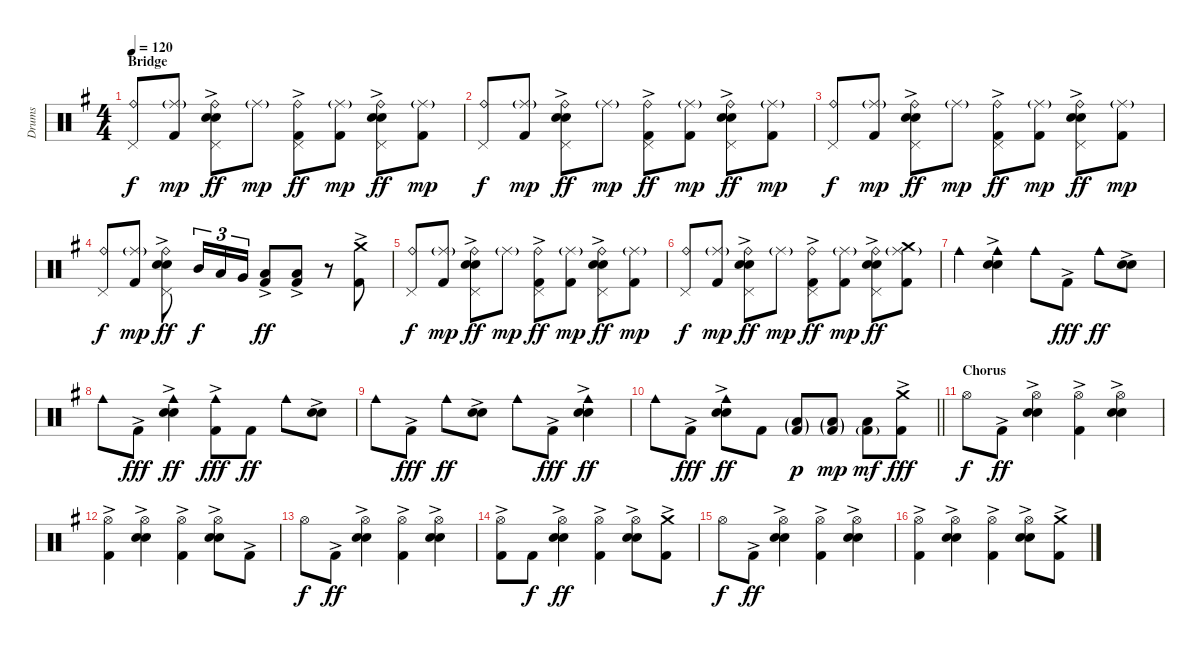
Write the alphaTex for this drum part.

\track ("Drums" "Drums") {instrument percussion}
\staff {score}
\articulation defaults
\ts (4 4)
\section ("" "Bridge")
\tempo 120
\clef neutral
\ks g
("Ride (bell)" "Pedal Hi-Hat (hit)").8{dy f} ("Ride (middle)"{g} "Kick (hit) 2").8{dy mp} ("Ride (bell)" "Pedal Hi-Hat (hit)" "Electric Snare (hit)"{ac} "Snare (hit) 2").8{dy ff} "Ride (middle)"{g}.8{dy mp} ("Ride (bell)" "Pedal Hi-Hat (hit)" "Kick (hit) 2"{ac}).8{dy ff} ("Ride (middle)"{g} "Kick (hit) 2").8{dy mp} ("Ride (bell)" "Pedal Hi-Hat (hit)" "Electric Snare (hit)"{ac} "Snare (hit) 2").8{dy ff} ("Ride (middle)"{g} "Kick (hit) 2").8{dy mp} |
("Ride (bell)" "Pedal Hi-Hat (hit)").8{dy f} ("Ride (middle)"{g} "Kick (hit) 2").8{dy mp} ("Ride (bell)" "Pedal Hi-Hat (hit)" "Electric Snare (hit)"{ac} "Snare (hit) 2").8{dy ff} "Ride (middle)"{g}.8{dy mp} ("Ride (bell)" "Pedal Hi-Hat (hit)" "Kick (hit) 2"{ac}).8{dy ff} ("Ride (middle)"{g} "Kick (hit) 2").8{dy mp} ("Ride (bell)" "Pedal Hi-Hat (hit)" "Electric Snare (hit)"{ac} "Snare (hit) 2").8{dy ff} ("Ride (middle)"{g} "Kick (hit) 2").8{dy mp} |
("Ride (bell)" "Pedal Hi-Hat (hit)").8{dy f} ("Ride (middle)"{g} "Kick (hit) 2").8{dy mp} ("Ride (bell)" "Pedal Hi-Hat (hit)" "Electric Snare (hit)"{ac} "Snare (hit) 2").8{dy ff} "Ride (middle)"{g}.8{dy mp} ("Ride (bell)" "Pedal Hi-Hat (hit)" "Kick (hit) 2"{ac}).8{dy ff} ("Ride (middle)"{g} "Kick (hit) 2").8{dy mp} ("Ride (bell)" "Pedal Hi-Hat (hit)" "Electric Snare (hit)"{ac} "Snare (hit) 2").8{dy ff} ("Ride (middle)"{g} "Kick (hit) 2").8{dy mp} |
("Ride (bell)" "Pedal Hi-Hat (hit)").8{dy f} ("Ride (middle)"{g} "Kick (hit) 2").8{dy mp} ("Ride (bell)" "Pedal Hi-Hat (hit)" "Electric Snare (hit)"{ac} "Snare (hit) 2").8{dy ff} "Mid Tom (hit)".16{tu (3 2) dy f} "Low Tom (hit)".16{tu (3 2)} "Very Low Tom (hit)".16{tu (3 2)} ("Low Floor Tom (hit)" "Kick (hit) 2"{ac}).8{dy ff} ("Low Floor Tom (hit)" "Kick (hit) 2"{ac}).8 r.8 ("Crash medium (hit)" "Kick (hit) 2"{ac}).8 |
("Ride (bell)" "Pedal Hi-Hat (hit)").8{dy f} ("Ride (middle)"{g} "Kick (hit) 2").8{dy mp} ("Ride (bell)" "Pedal Hi-Hat (hit)" "Electric Snare (hit)"{ac} "Snare (hit) 2").8{dy ff} "Ride (middle)"{g}.8{dy mp} ("Ride (bell)" "Pedal Hi-Hat (hit)" "Kick (hit) 2"{ac}).8{dy ff} ("Ride (middle)"{g} "Kick (hit) 2").8{dy mp} ("Ride (bell)" "Pedal Hi-Hat (hit)" "Electric Snare (hit)"{ac} "Snare (hit) 2").8{dy ff} ("Ride (middle)"{g} "Kick (hit) 2").8{dy mp} |
("Ride (bell)" "Pedal Hi-Hat (hit)").8{dy f} ("Ride (middle)"{g} "Kick (hit) 2").8{dy mp} ("Ride (bell)" "Pedal Hi-Hat (hit)" "Electric Snare (hit)"{ac} "Snare (hit) 2").8{dy ff} "Ride (middle)"{g}.8{dy mp} ("Ride (bell)" "Pedal Hi-Hat (hit)" "Kick (hit) 2"{ac}).8{dy ff} ("Ride (middle)"{g} "Kick (hit) 2").8{dy mp} ("Ride (bell)" "Pedal Hi-Hat (hit)" "Electric Snare (hit)"{ac} "Snare (hit) 2").8{dy ff} ("Ride (middle)"{g} "Crash medium (hit)" "Kick (hit) 2").8 |
"Cowbell medium (hit)".4 ("Cowbell medium (hit)" "Electric Snare (hit)"{ac} "Snare (hit) 2").4 "Cowbell medium (hit)".8 "Kick (hit) 2"{ac}.8{dy fff} "Cowbell medium (hit)".8{dy ff} ("Electric Snare (hit)"{ac} "Snare (hit) 2").8 |
"Cowbell medium (hit)".8 "Kick (hit) 2"{ac}.8{dy fff} ("Cowbell medium (hit)" "Electric Snare (hit)"{ac} "Snare (hit) 2").4{dy ff} ("Cowbell medium (hit)" "Kick (hit) 2"{ac}).8{dy fff} "Kick (hit) 2".8{dy ff} "Cowbell medium (hit)".8 ("Electric Snare (hit)"{ac} "Snare (hit) 2").8 |
"Cowbell medium (hit)".8 "Kick (hit) 2"{ac}.8{dy fff} "Cowbell medium (hit)".8{dy ff} ("Electric Snare (hit)"{ac} "Snare (hit) 2").8 "Cowbell medium (hit)".8 "Kick (hit) 2"{ac}.8{dy fff} ("Cowbell medium (hit)" "Electric Snare (hit)"{ac} "Snare (hit) 2").4{dy ff} |
\barLineRight lightlight "Cowbell medium (hit)".8 "Kick (hit) 2"{ac}.8{dy fff}
("Cowbell medium (hit)" "Electric Snare (hit)"{ac} "Snare (hit) 2").8{dy ff} "Kick (hit) 2".8 ("Low Floor Tom (hit)"{g} "Kick (hit) 2"{g}).8{dy p} ("Low Floor Tom (hit)"{g} "Kick (hit) 2"{g}).8{dy mp} ("Low Floor Tom (hit)" "Kick (hit) 2"{g}).8{dy mf} ("Crash medium (hit)"{ac} "Kick (hit) 2"{ac}).8{dy fff} |
\section ("" "Chorus")
"Hi-Hat (open)".8{dy f} "Kick (hit) 2"{ac}.8{dy ff} ("Hi-Hat (open)" "Electric Snare (hit)"{ac} "Snare (hit) 2").4 ("Hi-Hat (open)" "Kick (hit) 2"{ac}).4 ("Hi-Hat (open)" "Electric Snare (hit)"{ac} "Snare (hit) 2").4 |
("Hi-Hat (open)" "Kick (hit) 2"{ac}).4 ("Hi-Hat (open)" "Electric Snare (hit)"{ac} "Snare (hit) 2").4 ("Hi-Hat (open)" "Kick (hit) 2"{ac}).4 ("Hi-Hat (open)" "Electric Snare (hit)"{ac} "Snare (hit) 2").8 "Kick (hit) 2"{ac}.8 |
"Hi-Hat (open)".8{dy f} "Kick (hit) 2"{ac}.8{dy ff} ("Hi-Hat (open)" "Electric Snare (hit)"{ac} "Snare (hit) 2").4 ("Hi-Hat (open)" "Kick (hit) 2"{ac}).4 ("Hi-Hat (open)" "Electric Snare (hit)"{ac} "Snare (hit) 2").4 |
("Hi-Hat (open)" "Kick (hit) 2"{ac}).8 "Kick (hit) 2".8{dy f} ("Hi-Hat (open)" "Electric Snare (hit)"{ac} "Snare (hit) 2").4{dy ff} ("Hi-Hat (open)" "Kick (hit) 2"{ac}).4 ("Hi-Hat (open)" "Electric Snare (hit)"{ac} "Snare (hit) 2").8 ("Crash medium (hit)" "Kick (hit) 2"{ac}).8 |
"Hi-Hat (open)".8{dy f} "Kick (hit) 2"{ac}.8{dy ff} ("Hi-Hat (open)" "Electric Snare (hit)"{ac} "Snare (hit) 2").4 ("Hi-Hat (open)" "Kick (hit) 2"{ac}).4 ("Hi-Hat (open)" "Electric Snare (hit)"{ac} "Snare (hit) 2").4 |
("Hi-Hat (open)" "Kick (hit) 2"{ac}).4 ("Hi-Hat (open)" "Electric Snare (hit)"{ac} "Snare (hit) 2").4 ("Hi-Hat (open)" "Kick (hit) 2"{ac}).4 ("Hi-Hat (open)" "Electric Snare (hit)"{ac} "Snare (hit) 2").8 ("Crash medium (hit)" "Kick (hit) 2"{ac}).8
